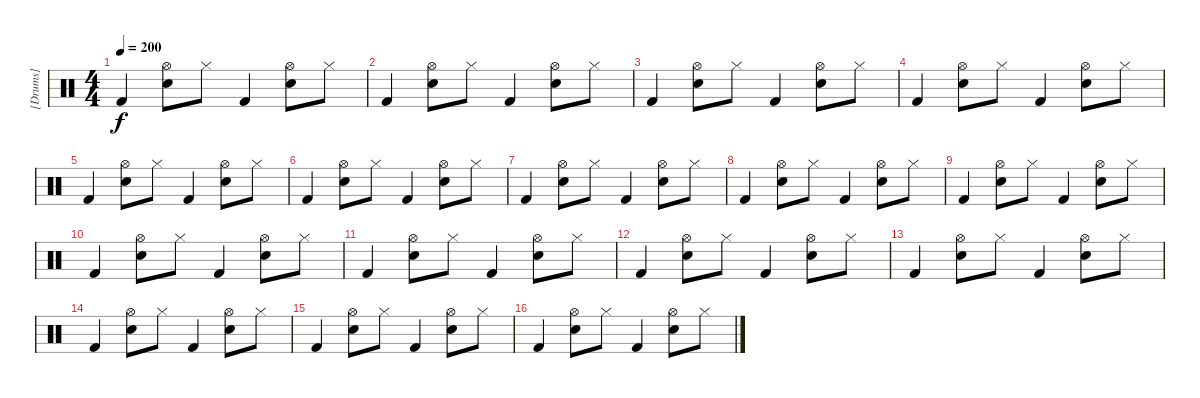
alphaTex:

\track ("[Drums]" "[Drums]") {instrument percussion}
\staff {score}
\articulation defaults
\ts (4 4)
\tempo 200
\clef neutral
\ks c "Kick (hit) 2".4{dy f}
("Hi-Hat (open)" "Electric Snare (hit)").8 "Hi-Hat (closed)".8 "Kick (hit) 2".4 ("Hi-Hat (open)" "Electric Snare (hit)").8 "Hi-Hat (closed)".8 |
"Kick (hit) 2".4 ("Hi-Hat (open)" "Electric Snare (hit)").8 "Hi-Hat (closed)".8 "Kick (hit) 2".4 ("Hi-Hat (open)" "Electric Snare (hit)").8 "Hi-Hat (closed)".8 |
"Kick (hit) 2".4 ("Hi-Hat (open)" "Electric Snare (hit)").8 "Hi-Hat (closed)".8 "Kick (hit) 2".4 ("Hi-Hat (open)" "Electric Snare (hit)").8 "Hi-Hat (closed)".8 |
"Kick (hit) 2".4 ("Hi-Hat (open)" "Electric Snare (hit)").8 "Hi-Hat (closed)".8 "Kick (hit) 2".4 ("Hi-Hat (open)" "Electric Snare (hit)").8 "Hi-Hat (closed)".8 |
"Kick (hit) 2".4 ("Hi-Hat (open)" "Electric Snare (hit)").8 "Hi-Hat (closed)".8 "Kick (hit) 2".4 ("Hi-Hat (open)" "Electric Snare (hit)").8 "Hi-Hat (closed)".8 |
"Kick (hit) 2".4 ("Hi-Hat (open)" "Electric Snare (hit)").8 "Hi-Hat (closed)".8 "Kick (hit) 2".4 ("Hi-Hat (open)" "Electric Snare (hit)").8 "Hi-Hat (closed)".8 |
"Kick (hit) 2".4 ("Hi-Hat (open)" "Electric Snare (hit)").8 "Hi-Hat (closed)".8 "Kick (hit) 2".4 ("Hi-Hat (open)" "Electric Snare (hit)").8 "Hi-Hat (closed)".8 |
"Kick (hit) 2".4 ("Hi-Hat (open)" "Electric Snare (hit)").8 "Hi-Hat (closed)".8 "Kick (hit) 2".4 ("Hi-Hat (open)" "Electric Snare (hit)").8 "Hi-Hat (closed)".8 |
"Kick (hit) 2".4 ("Hi-Hat (open)" "Electric Snare (hit)").8 "Hi-Hat (closed)".8 "Kick (hit) 2".4 ("Hi-Hat (open)" "Electric Snare (hit)").8 "Hi-Hat (closed)".8 |
"Kick (hit) 2".4 ("Hi-Hat (open)" "Electric Snare (hit)").8 "Hi-Hat (closed)".8 "Kick (hit) 2".4 ("Hi-Hat (open)" "Electric Snare (hit)").8 "Hi-Hat (closed)".8 |
"Kick (hit) 2".4 ("Hi-Hat (open)" "Electric Snare (hit)").8 "Hi-Hat (closed)".8 "Kick (hit) 2".4 ("Hi-Hat (open)" "Electric Snare (hit)").8 "Hi-Hat (closed)".8 |
"Kick (hit) 2".4 ("Hi-Hat (open)" "Electric Snare (hit)").8 "Hi-Hat (closed)".8 "Kick (hit) 2".4 ("Hi-Hat (open)" "Electric Snare (hit)").8 "Hi-Hat (closed)".8 |
"Kick (hit) 2".4 ("Hi-Hat (open)" "Electric Snare (hit)").8 "Hi-Hat (closed)".8 "Kick (hit) 2".4 ("Hi-Hat (open)" "Electric Snare (hit)").8 "Hi-Hat (closed)".8 |
"Kick (hit) 2".4 ("Hi-Hat (open)" "Electric Snare (hit)").8 "Hi-Hat (closed)".8 "Kick (hit) 2".4 ("Hi-Hat (open)" "Electric Snare (hit)").8 "Hi-Hat (closed)".8 |
"Kick (hit) 2".4 ("Hi-Hat (open)" "Electric Snare (hit)").8 "Hi-Hat (closed)".8 "Kick (hit) 2".4 ("Hi-Hat (open)" "Electric Snare (hit)").8 "Hi-Hat (closed)".8 |
"Kick (hit) 2".4 ("Hi-Hat (open)" "Electric Snare (hit)").8 "Hi-Hat (closed)".8 "Kick (hit) 2".4 ("Hi-Hat (open)" "Electric Snare (hit)").8 "Hi-Hat (closed)".8
